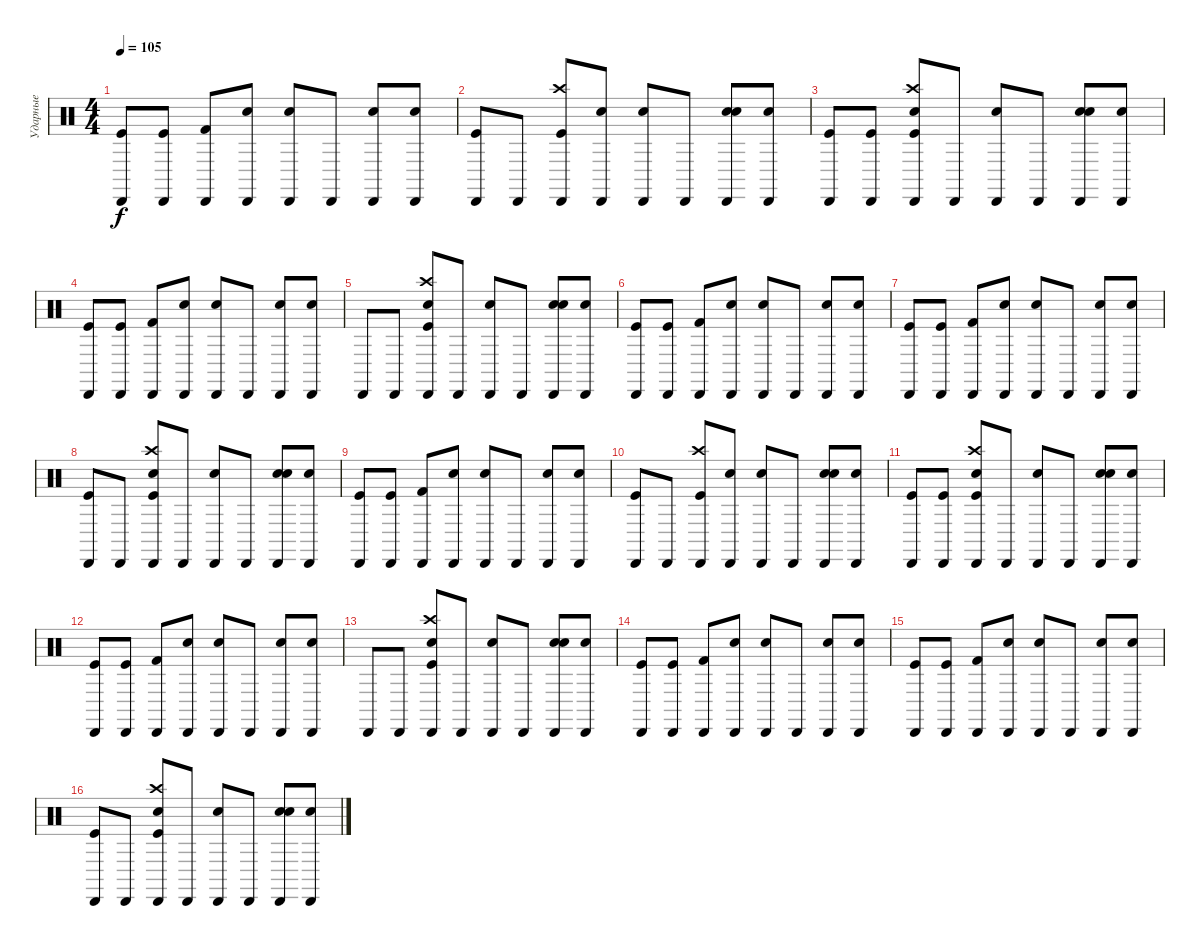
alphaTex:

\track ("Ударные" "Ударные") {instrument percussion}
\staff {score}
\articulation defaults
\ts (4 4)
\tempo 105
\clef neutral
\ks c
("Cabasa (hit)" "Kick (hit)").8{dy f} ("Cabasa (hit)" "Kick (hit)").8 ("Cabasa (hit)" "Kick (hit) 2").8 ("Cabasa (hit)" "Electric Snare (hit)").8 ("Cabasa (hit)" "Snare (hit) 2").8 "Cabasa (hit)".8 ("Cabasa (hit)" "Snare (hit) 2").8 ("Cabasa (hit)" "Snare (hit) 2").8 |
("Cabasa (hit)" "Kick (hit)").8 "Cabasa (hit)".8 ("Cabasa (hit)" "Crash high (hit)" "Kick (hit)").8 ("Cabasa (hit)" "Electric Snare (hit)").8 ("Cabasa (hit)" "Snare (hit) 2").8 "Cabasa (hit)".8 ("Cabasa (hit)" "Snare (hit) 2" "Snare (hit) 2").8 ("Cabasa (hit)" "Snare (hit) 2").8 |
("Cabasa (hit)" "Kick (hit)").8 ("Cabasa (hit)" "Kick (hit)").8 ("Cabasa (hit)" "Crash high (hit)" "Electric Snare (hit)" "Kick (hit)").8 "Cabasa (hit)".8 ("Cabasa (hit)" "Snare (hit) 2").8 "Cabasa (hit)".8 ("Cabasa (hit)" "Snare (hit) 2" "Snare (hit) 2").8 ("Cabasa (hit)" "Snare (hit) 2").8 |
("Cabasa (hit)" "Kick (hit)").8 ("Cabasa (hit)" "Kick (hit)").8 ("Cabasa (hit)" "Kick (hit) 2").8 ("Cabasa (hit)" "Electric Snare (hit)").8 ("Cabasa (hit)" "Snare (hit) 2").8 "Cabasa (hit)".8 ("Cabasa (hit)" "Snare (hit) 2").8 ("Cabasa (hit)" "Snare (hit) 2").8 |
"Cabasa (hit)".8 "Cabasa (hit)".8 ("Cabasa (hit)" "Crash high (hit)" "Electric Snare (hit)" "Kick (hit)").8 "Cabasa (hit)".8 ("Cabasa (hit)" "Snare (hit) 2").8 "Cabasa (hit)".8 ("Cabasa (hit)" "Snare (hit) 2" "Snare (hit) 2").8 ("Cabasa (hit)" "Snare (hit) 2").8 |
("Cabasa (hit)" "Kick (hit)").8 ("Cabasa (hit)" "Kick (hit)").8 ("Cabasa (hit)" "Kick (hit) 2").8 ("Cabasa (hit)" "Electric Snare (hit)").8 ("Cabasa (hit)" "Snare (hit) 2").8 "Cabasa (hit)".8 ("Cabasa (hit)" "Snare (hit) 2").8 ("Cabasa (hit)" "Snare (hit) 2").8 |
("Cabasa (hit)" "Kick (hit)").8 ("Cabasa (hit)" "Kick (hit)").8 ("Cabasa (hit)" "Kick (hit) 2").8 ("Cabasa (hit)" "Electric Snare (hit)").8 ("Cabasa (hit)" "Snare (hit) 2").8 "Cabasa (hit)".8 ("Cabasa (hit)" "Snare (hit) 2").8 ("Cabasa (hit)" "Snare (hit) 2").8 |
("Cabasa (hit)" "Kick (hit)").8 "Cabasa (hit)".8 ("Cabasa (hit)" "Crash high (hit)" "Electric Snare (hit)" "Kick (hit)").8 "Cabasa (hit)".8 ("Cabasa (hit)" "Snare (hit) 2").8 "Cabasa (hit)".8 ("Cabasa (hit)" "Snare (hit) 2" "Snare (hit) 2").8 ("Cabasa (hit)" "Snare (hit) 2").8 |
("Cabasa (hit)" "Kick (hit)").8 ("Cabasa (hit)" "Kick (hit)").8 ("Cabasa (hit)" "Kick (hit) 2").8 ("Cabasa (hit)" "Electric Snare (hit)").8 ("Cabasa (hit)" "Snare (hit) 2").8 "Cabasa (hit)".8 ("Cabasa (hit)" "Snare (hit) 2").8 ("Cabasa (hit)" "Snare (hit) 2").8 |
("Cabasa (hit)" "Kick (hit)").8 "Cabasa (hit)".8 ("Cabasa (hit)" "Crash high (hit)" "Kick (hit)").8 ("Cabasa (hit)" "Electric Snare (hit)").8 ("Cabasa (hit)" "Snare (hit) 2").8 "Cabasa (hit)".8 ("Cabasa (hit)" "Snare (hit) 2" "Snare (hit) 2").8 ("Cabasa (hit)" "Snare (hit) 2").8 |
("Cabasa (hit)" "Kick (hit)").8 ("Cabasa (hit)" "Kick (hit)").8 ("Cabasa (hit)" "Crash high (hit)" "Electric Snare (hit)" "Kick (hit)").8 "Cabasa (hit)".8 ("Cabasa (hit)" "Snare (hit) 2").8 "Cabasa (hit)".8 ("Cabasa (hit)" "Snare (hit) 2" "Snare (hit) 2").8 ("Cabasa (hit)" "Snare (hit) 2").8 |
("Cabasa (hit)" "Kick (hit)").8 ("Cabasa (hit)" "Kick (hit)").8 ("Cabasa (hit)" "Kick (hit) 2").8 ("Cabasa (hit)" "Electric Snare (hit)").8 ("Cabasa (hit)" "Snare (hit) 2").8 "Cabasa (hit)".8 ("Cabasa (hit)" "Snare (hit) 2").8 ("Cabasa (hit)" "Snare (hit) 2").8 |
"Cabasa (hit)".8 "Cabasa (hit)".8 ("Cabasa (hit)" "Crash high (hit)" "Electric Snare (hit)" "Kick (hit)").8 "Cabasa (hit)".8 ("Cabasa (hit)" "Snare (hit) 2").8 "Cabasa (hit)".8 ("Cabasa (hit)" "Snare (hit) 2" "Snare (hit) 2").8 ("Cabasa (hit)" "Snare (hit) 2").8 |
("Cabasa (hit)" "Kick (hit)").8 ("Cabasa (hit)" "Kick (hit)").8 ("Cabasa (hit)" "Kick (hit) 2").8 ("Cabasa (hit)" "Electric Snare (hit)").8 ("Cabasa (hit)" "Snare (hit) 2").8 "Cabasa (hit)".8 ("Cabasa (hit)" "Snare (hit) 2").8 ("Cabasa (hit)" "Snare (hit) 2").8 |
("Cabasa (hit)" "Kick (hit)").8 ("Cabasa (hit)" "Kick (hit)").8 ("Cabasa (hit)" "Kick (hit) 2").8 ("Cabasa (hit)" "Electric Snare (hit)").8 ("Cabasa (hit)" "Snare (hit) 2").8 "Cabasa (hit)".8 ("Cabasa (hit)" "Snare (hit) 2").8 ("Cabasa (hit)" "Snare (hit) 2").8 |
("Cabasa (hit)" "Kick (hit)").8 "Cabasa (hit)".8 ("Cabasa (hit)" "Crash high (hit)" "Electric Snare (hit)" "Kick (hit)").8 "Cabasa (hit)".8 ("Cabasa (hit)" "Snare (hit) 2").8 "Cabasa (hit)".8 ("Cabasa (hit)" "Snare (hit) 2" "Snare (hit) 2").8 ("Cabasa (hit)" "Snare (hit) 2").8
